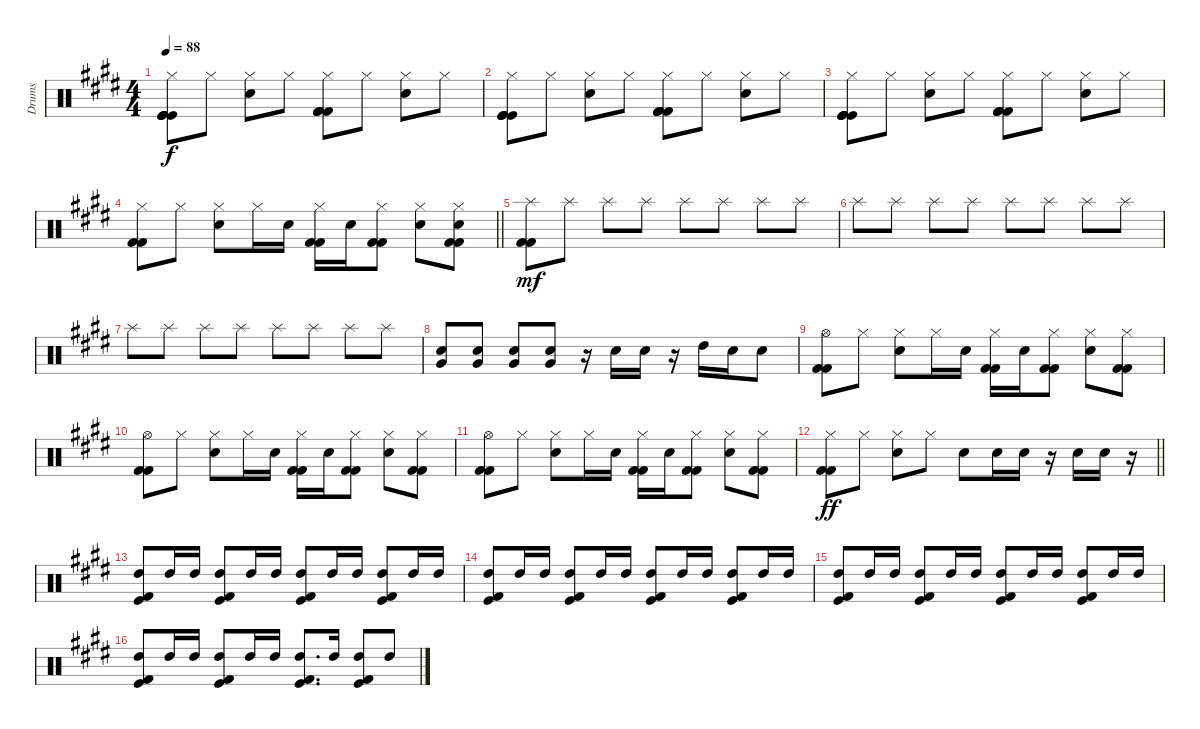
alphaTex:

\track ("Drums" "Drums") {instrument percussion}
\staff {score}
\articulation defaults
\ts (4 4)
\tempo 88
\clef neutral
\ks e
("Hi-Hat (closed)" "Kick (hit)" "Kick (hit)" "Kick (hit)" "Kick (hit)").8{dy f} "Hi-Hat (closed)".8 ("Hi-Hat (closed)" "Snare (hit) 2").8 "Hi-Hat (closed)".8 ("Hi-Hat (closed)" "Kick (hit) 2" "Kick (hit) 2" "Kick (hit) 2" "Kick (hit) 2").8 "Hi-Hat (closed)".8 ("Hi-Hat (closed)" "Snare (hit) 2").8 "Hi-Hat (closed)".8 |
("Hi-Hat (closed)" "Kick (hit)" "Kick (hit)" "Kick (hit)" "Kick (hit)").8 "Hi-Hat (closed)".8 ("Hi-Hat (closed)" "Snare (hit) 2").8 "Hi-Hat (closed)".8 ("Hi-Hat (closed)" "Kick (hit) 2" "Kick (hit) 2" "Kick (hit) 2" "Kick (hit) 2").8 "Hi-Hat (closed)".8 ("Hi-Hat (closed)" "Snare (hit) 2").8 "Hi-Hat (closed)".8 |
("Hi-Hat (closed)" "Kick (hit)" "Kick (hit)" "Kick (hit)" "Kick (hit)").8 "Hi-Hat (closed)".8 ("Hi-Hat (closed)" "Snare (hit) 2").8 "Hi-Hat (closed)".8 ("Hi-Hat (closed)" "Kick (hit) 2" "Kick (hit) 2" "Kick (hit) 2" "Kick (hit) 2").8 "Hi-Hat (closed)".8 ("Hi-Hat (closed)" "Snare (hit) 2").8 "Hi-Hat (closed)".8 |
\barLineRight lightlight
("Hi-Hat (closed)" "Kick (hit) 2" "Kick (hit) 2").8 "Hi-Hat (closed)".8 ("Hi-Hat (closed)" "Snare (hit) 2").8 "Hi-Hat (closed)".16 "Snare (hit) 2".16 ("Hi-Hat (closed)" "Kick (hit) 2" "Kick (hit) 2").16 "Snare (hit) 2".16 ("Hi-Hat (closed)" "Kick (hit) 2" "Kick (hit) 2").8 ("Hi-Hat (closed)" "Snare (hit) 2").8 ("Hi-Hat (closed)" "Snare (hit) 2" "Kick (hit) 2" "Kick (hit) 2").8 |
("Splash (hit)" "Kick (hit) 2" "Kick (hit) 2").8{dy mf} "Splash (hit)".8 "Splash (hit)".8 "Splash (hit)".8 "Splash (hit)".8 "Splash (hit)".8 "Splash (hit)".8 "Splash (hit)".8 |
"Splash (hit)".8 "Splash (hit)".8 "Splash (hit)".8 "Splash (hit)".8 "Splash (hit)".8 "Splash (hit)".8 "Splash (hit)".8 "Splash (hit)".8 |
"Splash (hit)".8 "Splash (hit)".8 "Splash (hit)".8 "Splash (hit)".8 "Splash (hit)".8 "Splash (hit)".8 "Splash (hit)".8 "Splash (hit)".8 |
("Snare (hit) 2" "Very Low Tom (hit)").8 ("Snare (hit) 2" "Very Low Tom (hit)").8 ("Snare (hit) 2" "Very Low Tom (hit)").8 ("Snare (hit) 2" "Very Low Tom (hit)").8 r.16 "Snare (hit) 2".16 "Snare (hit) 2".16 r.16 "High Tom (hit)".16 "Snare (hit) 2".16 "Snare (hit) 2".8 |
("Hi-Hat (open)" "Kick (hit) 2" "Kick (hit) 2").8 "Hi-Hat (closed)".8 ("Hi-Hat (closed)" "Snare (hit) 2").8 "Hi-Hat (closed)".16 "Snare (hit) 2".16 ("Hi-Hat (closed)" "Kick (hit) 2" "Kick (hit) 2").16 "Snare (hit) 2".16 ("Hi-Hat (closed)" "Kick (hit) 2" "Kick (hit) 2").8 ("Hi-Hat (closed)" "Snare (hit) 2").8 ("Hi-Hat (closed)" "Kick (hit) 2" "Kick (hit) 2").8 |
("Hi-Hat (open)" "Kick (hit) 2" "Kick (hit) 2").8 "Hi-Hat (closed)".8 ("Hi-Hat (closed)" "Snare (hit) 2").8 "Hi-Hat (closed)".16 "Snare (hit) 2".16 ("Hi-Hat (closed)" "Kick (hit) 2" "Kick (hit) 2").16 "Snare (hit) 2".16 ("Hi-Hat (closed)" "Kick (hit) 2" "Kick (hit) 2").8 ("Hi-Hat (closed)" "Snare (hit) 2").8 ("Hi-Hat (closed)" "Kick (hit) 2" "Kick (hit) 2").8 |
("Hi-Hat (open)" "Kick (hit) 2" "Kick (hit) 2").8 "Hi-Hat (closed)".8 ("Hi-Hat (closed)" "Snare (hit) 2").8 "Hi-Hat (closed)".16 "Snare (hit) 2".16 ("Hi-Hat (closed)" "Kick (hit) 2" "Kick (hit) 2").16 "Snare (hit) 2".16 ("Hi-Hat (closed)" "Kick (hit) 2" "Kick (hit) 2").8 ("Hi-Hat (closed)" "Snare (hit) 2").8 ("Hi-Hat (closed)" "Kick (hit) 2" "Kick (hit) 2").8 |
\barLineRight lightlight
("Hi-Hat (closed)" "Kick (hit) 2" "Kick (hit) 2").8{dy ff} "Hi-Hat (closed)".8 ("Hi-Hat (closed)" "Snare (hit) 2").8 "Hi-Hat (closed)".8 "Snare (hit) 2".8 "Snare (hit) 2".16 "Snare (hit) 2".16 r.16 "Snare (hit) 2".16 "Snare (hit) 2".16 r.16 |
("Kick (hit)" "Kick (hit) 2" "High Tom (hit)").8 "High Tom (hit)".16 "High Tom (hit)".16 ("Kick (hit)" "Kick (hit) 2" "High Tom (hit)").8 "High Tom (hit)".16 "High Tom (hit)".16 ("Kick (hit)" "Kick (hit) 2" "High Tom (hit)").8 "High Tom (hit)".16 "High Tom (hit)".16 ("Kick (hit)" "Kick (hit) 2" "High Tom (hit)").8 "High Tom (hit)".16 "High Tom (hit)".16 |
("Kick (hit)" "Kick (hit) 2" "High Tom (hit)").8 "High Tom (hit)".16 "High Tom (hit)".16 ("Kick (hit)" "Kick (hit) 2" "High Tom (hit)").8 "High Tom (hit)".16 "High Tom (hit)".16 ("Kick (hit)" "Kick (hit) 2" "High Tom (hit)").8 "High Tom (hit)".16 "High Tom (hit)".16 ("Kick (hit)" "Kick (hit) 2" "High Tom (hit)").8 "High Tom (hit)".16 "High Tom (hit)".16 |
("Kick (hit)" "Kick (hit) 2" "High Tom (hit)").8 "High Tom (hit)".16 "High Tom (hit)".16 ("Kick (hit)" "Kick (hit) 2" "High Tom (hit)").8 "High Tom (hit)".16 "High Tom (hit)".16 ("Kick (hit)" "Kick (hit) 2" "High Tom (hit)").8 "High Tom (hit)".16 "High Tom (hit)".16 ("Kick (hit)" "Kick (hit) 2" "High Tom (hit)").8 "High Tom (hit)".16 "High Tom (hit)".16 |
("Kick (hit) 2" "Kick (hit)" "High Tom (hit)").8 "High Tom (hit)".16 "High Tom (hit)".16 ("Kick (hit) 2" "Kick (hit)" "High Tom (hit)").8 "High Tom (hit)".16 "High Tom (hit)".16 ("Kick (hit) 2" "Kick (hit)" "High Tom (hit)").8{d} "High Tom (hit)".16 ("Kick (hit) 2" "Kick (hit)" "High Tom (hit)").8 "High Tom (hit)".8
